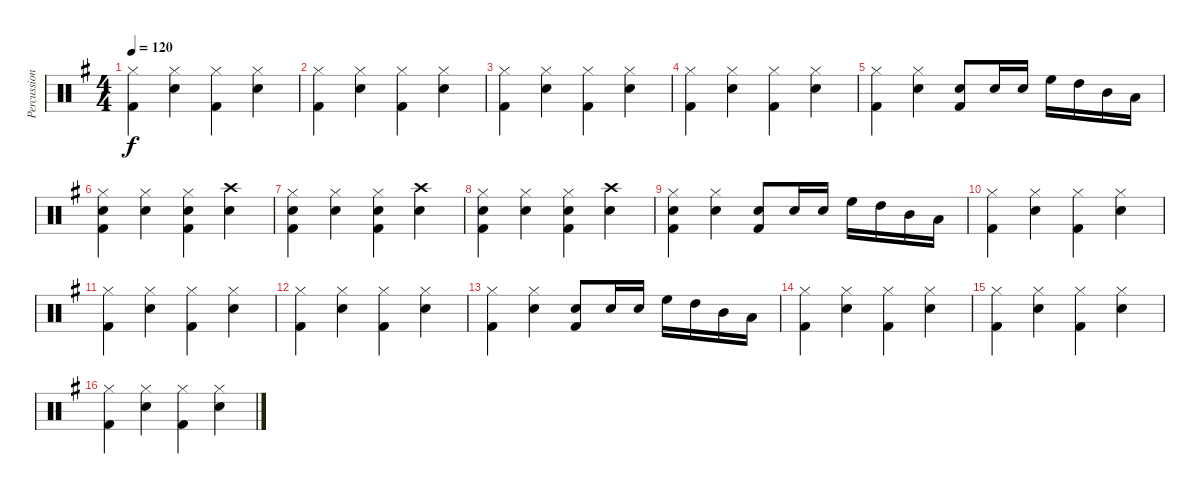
\track ("Percussion" "Percussion") {instrument percussion}
\staff {score}
\articulation defaults
\ts (4 4)
\tempo 120
\clef neutral
\ks eminor
("Hi-Hat (closed)" "Kick (hit) 2").4{dy f} ("Hi-Hat (closed)" "Snare (hit) 2").4 ("Hi-Hat (closed)" "Kick (hit) 2").4 ("Hi-Hat (closed)" "Snare (hit) 2").4 |
("Hi-Hat (closed)" "Kick (hit) 2").4 ("Hi-Hat (closed)" "Snare (hit) 2").4 ("Hi-Hat (closed)" "Kick (hit) 2").4 ("Hi-Hat (closed)" "Snare (hit) 2").4 |
("Hi-Hat (closed)" "Kick (hit) 2").4 ("Hi-Hat (closed)" "Snare (hit) 2").4 ("Hi-Hat (closed)" "Kick (hit) 2").4 ("Hi-Hat (closed)" "Snare (hit) 2").4 |
("Hi-Hat (closed)" "Kick (hit) 2").4 ("Hi-Hat (closed)" "Snare (hit) 2").4 ("Hi-Hat (closed)" "Kick (hit) 2").4 ("Hi-Hat (closed)" "Snare (hit) 2").4 |
("Hi-Hat (closed)" "Kick (hit) 2").4 ("Hi-Hat (closed)" "Snare (hit) 2").4 ("Snare (hit) 2" "Kick (hit) 2").8 "Snare (hit) 2".16 "Snare (hit) 2".16 "High Floor Tom (hit)".16 "High Tom (hit)".16 "Mid Tom (hit)".16 "Low Tom (hit)".16 |
("Hi-Hat (closed)" "Snare (hit) 2" "Kick (hit) 2").4 ("Hi-Hat (closed)" "Snare (hit) 2").4 ("Hi-Hat (closed)" "Snare (hit) 2" "Kick (hit) 2").4 ("Crash high (hit)" "Snare (hit) 2").4 |
("Hi-Hat (closed)" "Snare (hit) 2" "Kick (hit) 2").4 ("Hi-Hat (closed)" "Snare (hit) 2").4 ("Hi-Hat (closed)" "Snare (hit) 2" "Kick (hit) 2").4 ("Crash high (hit)" "Snare (hit) 2").4 |
("Hi-Hat (closed)" "Snare (hit) 2" "Kick (hit) 2").4 ("Hi-Hat (closed)" "Snare (hit) 2").4 ("Hi-Hat (closed)" "Snare (hit) 2" "Kick (hit) 2").4 ("Crash high (hit)" "Snare (hit) 2").4 |
("Hi-Hat (closed)" "Snare (hit) 2" "Kick (hit) 2").4 ("Hi-Hat (closed)" "Snare (hit) 2").4 ("Snare (hit) 2" "Kick (hit) 2").8 "Snare (hit) 2".16 "Snare (hit) 2".16 "High Floor Tom (hit)".16 "High Tom (hit)".16 "Mid Tom (hit)".16 "Low Tom (hit)".16 |
("Hi-Hat (closed)" "Kick (hit) 2").4 ("Hi-Hat (closed)" "Snare (hit) 2").4 ("Hi-Hat (closed)" "Kick (hit) 2").4 ("Hi-Hat (closed)" "Snare (hit) 2").4 |
("Hi-Hat (closed)" "Kick (hit) 2").4 ("Hi-Hat (closed)" "Snare (hit) 2").4 ("Hi-Hat (closed)" "Kick (hit) 2").4 ("Hi-Hat (closed)" "Snare (hit) 2").4 |
("Hi-Hat (closed)" "Kick (hit) 2").4 ("Hi-Hat (closed)" "Snare (hit) 2").4 ("Hi-Hat (closed)" "Kick (hit) 2").4 ("Hi-Hat (closed)" "Snare (hit) 2").4 |
("Hi-Hat (closed)" "Kick (hit) 2").4 ("Hi-Hat (closed)" "Snare (hit) 2").4 ("Snare (hit) 2" "Kick (hit) 2").8 "Snare (hit) 2".16 "Snare (hit) 2".16 "High Floor Tom (hit)".16 "High Tom (hit)".16 "Mid Tom (hit)".16 "Low Tom (hit)".16 |
("Hi-Hat (closed)" "Kick (hit) 2").4 ("Hi-Hat (closed)" "Snare (hit) 2").4 ("Hi-Hat (closed)" "Kick (hit) 2").4 ("Hi-Hat (closed)" "Snare (hit) 2").4 |
("Hi-Hat (closed)" "Kick (hit) 2").4 ("Hi-Hat (closed)" "Snare (hit) 2").4 ("Hi-Hat (closed)" "Kick (hit) 2").4 ("Hi-Hat (closed)" "Snare (hit) 2").4 |
("Hi-Hat (closed)" "Kick (hit) 2").4 ("Hi-Hat (closed)" "Snare (hit) 2").4 ("Hi-Hat (closed)" "Kick (hit) 2").4 ("Hi-Hat (closed)" "Snare (hit) 2").4
